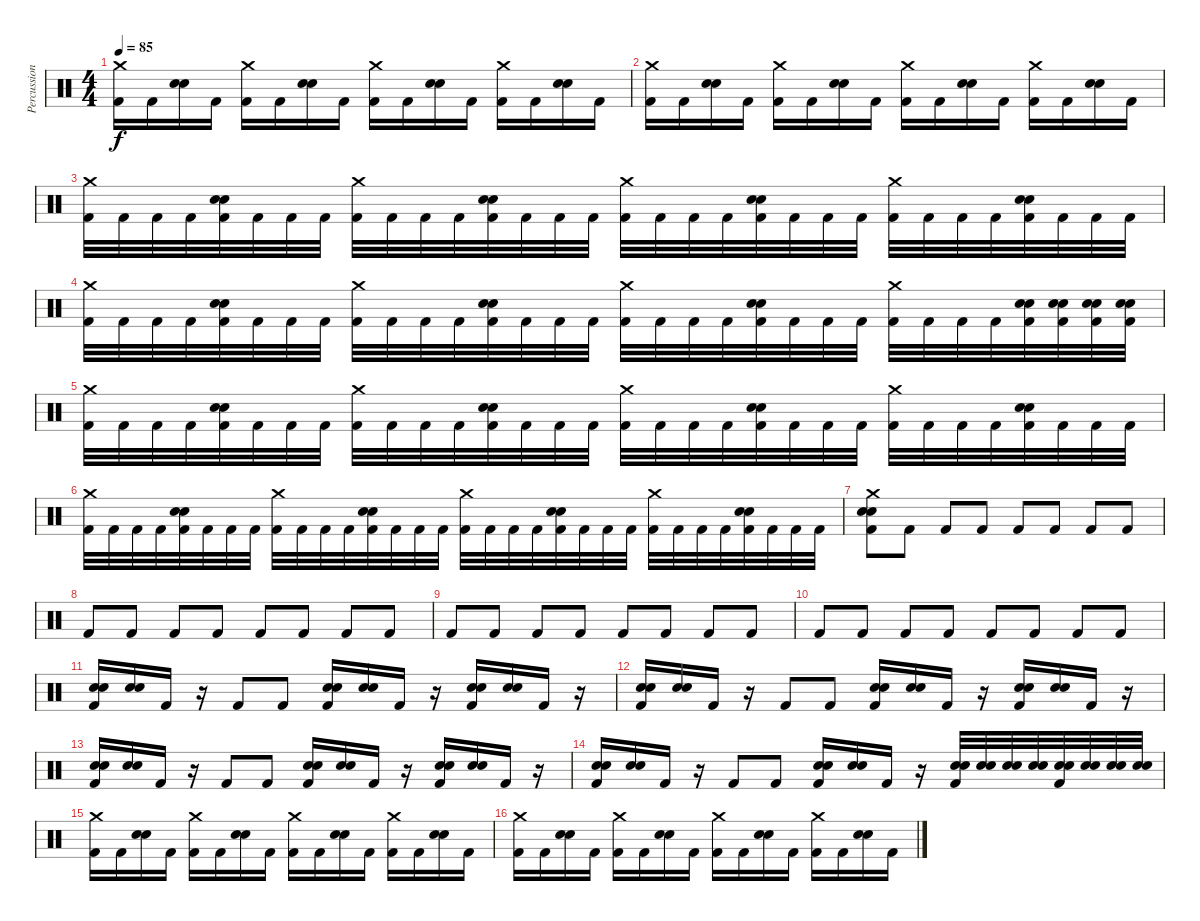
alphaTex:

\track ("Percussion" "Percussion") {instrument percussion}
\staff {score}
\articulation defaults
\ts (4 4)
\tempo 85
\clef neutral
\ks c
("Crash medium (hit)" "Kick (hit) 2").16{dy f} "Kick (hit) 2".16 ("Electric Snare (hit)" "Electric Snare (hit)").16 "Kick (hit) 2".16 ("Crash medium (hit)" "Kick (hit) 2").16 "Kick (hit) 2".16 ("Electric Snare (hit)" "Electric Snare (hit)").16 "Kick (hit) 2".16 ("Crash medium (hit)" "Kick (hit) 2").16 "Kick (hit) 2".16 ("Electric Snare (hit)" "Electric Snare (hit)").16 "Kick (hit) 2".16 ("Crash medium (hit)" "Kick (hit) 2").16 "Kick (hit) 2".16 ("Electric Snare (hit)" "Electric Snare (hit)").16 "Kick (hit) 2".16 |
("Crash medium (hit)" "Kick (hit) 2").16 "Kick (hit) 2".16 ("Electric Snare (hit)" "Electric Snare (hit)").16 "Kick (hit) 2".16 ("Crash medium (hit)" "Kick (hit) 2").16 "Kick (hit) 2".16 ("Electric Snare (hit)" "Electric Snare (hit)").16 "Kick (hit) 2".16 ("Crash medium (hit)" "Kick (hit) 2").16 "Kick (hit) 2".16 ("Electric Snare (hit)" "Electric Snare (hit)").16 "Kick (hit) 2".16 ("Crash medium (hit)" "Kick (hit) 2").16 "Kick (hit) 2".16 ("Electric Snare (hit)" "Electric Snare (hit)").16 "Kick (hit) 2".16 |
("Crash medium (hit)" "Kick (hit) 2").32 "Kick (hit) 2".32 "Kick (hit) 2".32 "Kick (hit) 2".32 ("Electric Snare (hit)" "Electric Snare (hit)" "Kick (hit) 2").32 "Kick (hit) 2".32 "Kick (hit) 2".32 "Kick (hit) 2".32 ("Crash medium (hit)" "Kick (hit) 2").32 "Kick (hit) 2".32 "Kick (hit) 2".32 "Kick (hit) 2".32 ("Electric Snare (hit)" "Electric Snare (hit)" "Kick (hit) 2").32 "Kick (hit) 2".32 "Kick (hit) 2".32 "Kick (hit) 2".32 ("Crash medium (hit)" "Kick (hit) 2").32 "Kick (hit) 2".32 "Kick (hit) 2".32 "Kick (hit) 2".32 ("Electric Snare (hit)" "Electric Snare (hit)" "Kick (hit) 2").32 "Kick (hit) 2".32 "Kick (hit) 2".32 "Kick (hit) 2".32 ("Crash medium (hit)" "Kick (hit) 2").32 "Kick (hit) 2".32 "Kick (hit) 2".32 "Kick (hit) 2".32 ("Electric Snare (hit)" "Electric Snare (hit)" "Kick (hit) 2").32 "Kick (hit) 2".32 "Kick (hit) 2".32 "Kick (hit) 2".32 |
("Crash medium (hit)" "Kick (hit) 2").32 "Kick (hit) 2".32 "Kick (hit) 2".32 "Kick (hit) 2".32 ("Electric Snare (hit)" "Electric Snare (hit)" "Kick (hit) 2").32 "Kick (hit) 2".32 "Kick (hit) 2".32 "Kick (hit) 2".32 ("Crash medium (hit)" "Kick (hit) 2").32 "Kick (hit) 2".32 "Kick (hit) 2".32 "Kick (hit) 2".32 ("Electric Snare (hit)" "Electric Snare (hit)" "Kick (hit) 2").32 "Kick (hit) 2".32 "Kick (hit) 2".32 "Kick (hit) 2".32 ("Crash medium (hit)" "Kick (hit) 2").32 "Kick (hit) 2".32 "Kick (hit) 2".32 "Kick (hit) 2".32 ("Electric Snare (hit)" "Electric Snare (hit)" "Kick (hit) 2").32 "Kick (hit) 2".32 "Kick (hit) 2".32 "Kick (hit) 2".32 ("Crash medium (hit)" "Kick (hit) 2").32 "Kick (hit) 2".32 "Kick (hit) 2".32 "Kick (hit) 2".32 ("Electric Snare (hit)" "Electric Snare (hit)" "Kick (hit) 2").32 ("Electric Snare (hit)" "Electric Snare (hit)" "Kick (hit) 2").32 ("Electric Snare (hit)" "Electric Snare (hit)" "Kick (hit) 2").32 ("Electric Snare (hit)" "Electric Snare (hit)" "Kick (hit) 2").32 |
("Crash medium (hit)" "Kick (hit) 2").32 "Kick (hit) 2".32 "Kick (hit) 2".32 "Kick (hit) 2".32 ("Electric Snare (hit)" "Electric Snare (hit)" "Kick (hit) 2").32 "Kick (hit) 2".32 "Kick (hit) 2".32 "Kick (hit) 2".32 ("Crash medium (hit)" "Kick (hit) 2").32 "Kick (hit) 2".32 "Kick (hit) 2".32 "Kick (hit) 2".32 ("Electric Snare (hit)" "Electric Snare (hit)" "Kick (hit) 2").32 "Kick (hit) 2".32 "Kick (hit) 2".32 "Kick (hit) 2".32 ("Crash medium (hit)" "Kick (hit) 2").32 "Kick (hit) 2".32 "Kick (hit) 2".32 "Kick (hit) 2".32 ("Electric Snare (hit)" "Electric Snare (hit)" "Kick (hit) 2").32 "Kick (hit) 2".32 "Kick (hit) 2".32 "Kick (hit) 2".32 ("Crash medium (hit)" "Kick (hit) 2").32 "Kick (hit) 2".32 "Kick (hit) 2".32 "Kick (hit) 2".32 ("Electric Snare (hit)" "Electric Snare (hit)" "Kick (hit) 2").32 "Kick (hit) 2".32 "Kick (hit) 2".32 "Kick (hit) 2".32 |
("Crash medium (hit)" "Kick (hit) 2").32 "Kick (hit) 2".32 "Kick (hit) 2".32 "Kick (hit) 2".32 ("Electric Snare (hit)" "Electric Snare (hit)" "Kick (hit) 2").32 "Kick (hit) 2".32 "Kick (hit) 2".32 "Kick (hit) 2".32 ("Crash medium (hit)" "Kick (hit) 2").32 "Kick (hit) 2".32 "Kick (hit) 2".32 "Kick (hit) 2".32 ("Electric Snare (hit)" "Electric Snare (hit)" "Kick (hit) 2").32 "Kick (hit) 2".32 "Kick (hit) 2".32 "Kick (hit) 2".32 ("Crash medium (hit)" "Kick (hit) 2").32 "Kick (hit) 2".32 "Kick (hit) 2".32 "Kick (hit) 2".32 ("Electric Snare (hit)" "Electric Snare (hit)" "Kick (hit) 2").32 "Kick (hit) 2".32 "Kick (hit) 2".32 "Kick (hit) 2".32 ("Crash medium (hit)" "Kick (hit) 2").32 "Kick (hit) 2".32 "Kick (hit) 2".32 "Kick (hit) 2".32 ("Electric Snare (hit)" "Electric Snare (hit)" "Kick (hit) 2").32 "Kick (hit) 2".32 "Kick (hit) 2".32 "Kick (hit) 2".32 |
("Crash medium (hit)" "Electric Snare (hit)" "Electric Snare (hit)" "Kick (hit) 2").8 "Kick (hit) 2".8 "Kick (hit) 2".8 "Kick (hit) 2".8 "Kick (hit) 2".8 "Kick (hit) 2".8 "Kick (hit) 2".8 "Kick (hit) 2".8 |
"Kick (hit) 2".8 "Kick (hit) 2".8 "Kick (hit) 2".8 "Kick (hit) 2".8 "Kick (hit) 2".8 "Kick (hit) 2".8 "Kick (hit) 2".8 "Kick (hit) 2".8 |
"Kick (hit) 2".8 "Kick (hit) 2".8 "Kick (hit) 2".8 "Kick (hit) 2".8 "Kick (hit) 2".8 "Kick (hit) 2".8 "Kick (hit) 2".8 "Kick (hit) 2".8 |
"Kick (hit) 2".8 "Kick (hit) 2".8 "Kick (hit) 2".8 "Kick (hit) 2".8 "Kick (hit) 2".8 "Kick (hit) 2".8 "Kick (hit) 2".8 "Kick (hit) 2".8 |
("Electric Snare (hit)" "Electric Snare (hit)" "Kick (hit) 2").16 ("Electric Snare (hit)" "Electric Snare (hit)").16 "Kick (hit) 2".16 r.16 "Kick (hit) 2".8 "Kick (hit) 2".8 ("Electric Snare (hit)" "Electric Snare (hit)" "Kick (hit) 2").16 ("Electric Snare (hit)" "Electric Snare (hit)").16 "Kick (hit) 2".16 r.16 ("Electric Snare (hit)" "Electric Snare (hit)" "Kick (hit) 2").16 ("Electric Snare (hit)" "Electric Snare (hit)").16 "Kick (hit) 2".16 r.16 |
("Electric Snare (hit)" "Electric Snare (hit)" "Kick (hit) 2").16 ("Electric Snare (hit)" "Electric Snare (hit)").16 "Kick (hit) 2".16 r.16 "Kick (hit) 2".8 "Kick (hit) 2".8 ("Electric Snare (hit)" "Electric Snare (hit)" "Kick (hit) 2").16 ("Electric Snare (hit)" "Electric Snare (hit)").16 "Kick (hit) 2".16 r.16 ("Electric Snare (hit)" "Electric Snare (hit)" "Kick (hit) 2").16 ("Electric Snare (hit)" "Electric Snare (hit)").16 "Kick (hit) 2".16 r.16 |
("Electric Snare (hit)" "Electric Snare (hit)" "Kick (hit) 2").16 ("Electric Snare (hit)" "Electric Snare (hit)").16 "Kick (hit) 2".16 r.16 "Kick (hit) 2".8 "Kick (hit) 2".8 ("Electric Snare (hit)" "Electric Snare (hit)" "Kick (hit) 2").16 ("Electric Snare (hit)" "Electric Snare (hit)").16 "Kick (hit) 2".16 r.16 ("Electric Snare (hit)" "Electric Snare (hit)" "Kick (hit) 2").16 ("Electric Snare (hit)" "Electric Snare (hit)").16 "Kick (hit) 2".16 r.16 |
("Electric Snare (hit)" "Electric Snare (hit)" "Kick (hit) 2").16 ("Electric Snare (hit)" "Electric Snare (hit)").16 "Kick (hit) 2".16 r.16 "Kick (hit) 2".8 "Kick (hit) 2".8 ("Electric Snare (hit)" "Electric Snare (hit)" "Kick (hit) 2").16 ("Electric Snare (hit)" "Electric Snare (hit)").16 "Kick (hit) 2".16 r.16 ("Electric Snare (hit)" "Electric Snare (hit)" "Kick (hit) 2").32 ("Electric Snare (hit)" "Electric Snare (hit)").32 ("Electric Snare (hit)" "Electric Snare (hit)").32 ("Electric Snare (hit)" "Electric Snare (hit)").32 ("Electric Snare (hit)" "Electric Snare (hit)" "Kick (hit) 2").32 ("Electric Snare (hit)" "Electric Snare (hit)").32 ("Electric Snare (hit)" "Electric Snare (hit)").32 ("Electric Snare (hit)" "Electric Snare (hit)").32 |
("Crash medium (hit)" "Kick (hit) 2").16 "Kick (hit) 2".16 ("Electric Snare (hit)" "Electric Snare (hit)").16 "Kick (hit) 2".16 ("Crash medium (hit)" "Kick (hit) 2").16 "Kick (hit) 2".16 ("Electric Snare (hit)" "Electric Snare (hit)").16 "Kick (hit) 2".16 ("Crash medium (hit)" "Kick (hit) 2").16 "Kick (hit) 2".16 ("Electric Snare (hit)" "Electric Snare (hit)").16 "Kick (hit) 2".16 ("Crash medium (hit)" "Kick (hit) 2").16 "Kick (hit) 2".16 ("Electric Snare (hit)" "Electric Snare (hit)").16 "Kick (hit) 2".16 |
("Crash medium (hit)" "Kick (hit) 2").16 "Kick (hit) 2".16 ("Electric Snare (hit)" "Electric Snare (hit)").16 "Kick (hit) 2".16 ("Crash medium (hit)" "Kick (hit) 2").16 "Kick (hit) 2".16 ("Electric Snare (hit)" "Electric Snare (hit)").16 "Kick (hit) 2".16 ("Crash medium (hit)" "Kick (hit) 2").16 "Kick (hit) 2".16 ("Electric Snare (hit)" "Electric Snare (hit)").16 "Kick (hit) 2".16 ("Crash medium (hit)" "Kick (hit) 2").16 "Kick (hit) 2".16 ("Electric Snare (hit)" "Electric Snare (hit)").16 "Kick (hit) 2".16
